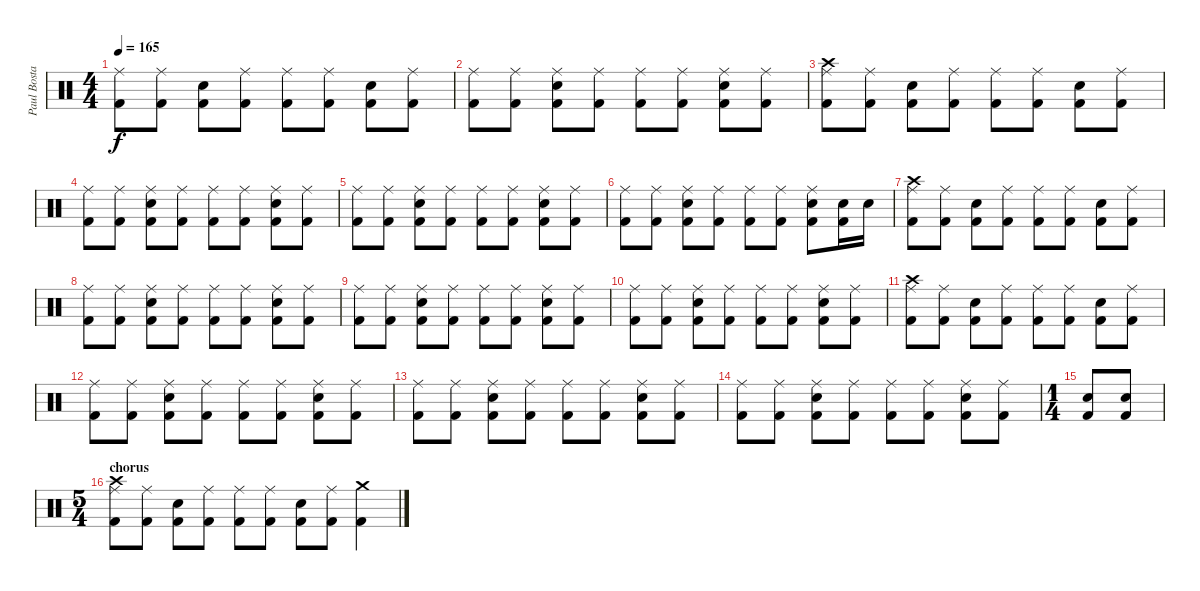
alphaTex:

\track ("Paul Bostaph" "Paul Bosta") {instrument percussion}
\staff {score}
\articulation defaults
\ts (4 4)
\tempo 165
\clef neutral
\ks c
("Ride (middle)" "Kick (hit) 2").8{dy f} ("Ride (middle)" "Kick (hit) 2").8 ("Snare (hit) 2" "Kick (hit) 2").8 ("Ride (middle)" "Kick (hit) 2").8 ("Ride (middle)" "Kick (hit) 2").8 ("Ride (middle)" "Kick (hit) 2").8 ("Snare (hit) 2" "Kick (hit) 2").8 ("Ride (middle)" "Kick (hit) 2").8 |
("Ride (middle)" "Kick (hit) 2").8 ("Ride (middle)" "Kick (hit) 2").8 ("Ride (middle)" "Snare (hit) 2" "Kick (hit) 2").8 ("Ride (middle)" "Kick (hit) 2").8 ("Ride (middle)" "Kick (hit) 2").8 ("Ride (middle)" "Kick (hit) 2").8 ("Ride (middle)" "Snare (hit) 2" "Kick (hit) 2").8 ("Ride (middle)" "Kick (hit) 2").8 |
("Crash high (hit)" "Ride (middle)" "Kick (hit) 2").8 ("Ride (middle)" "Kick (hit) 2").8 ("Snare (hit) 2" "Kick (hit) 2").8 ("Ride (middle)" "Kick (hit) 2").8 ("Ride (middle)" "Kick (hit) 2").8 ("Ride (middle)" "Kick (hit) 2").8 ("Snare (hit) 2" "Kick (hit) 2").8 ("Ride (middle)" "Kick (hit) 2").8 |
("Ride (middle)" "Kick (hit) 2").8 ("Ride (middle)" "Kick (hit) 2").8 ("Ride (middle)" "Snare (hit) 2" "Kick (hit) 2").8 ("Ride (middle)" "Kick (hit) 2").8 ("Ride (middle)" "Kick (hit) 2").8 ("Ride (middle)" "Kick (hit) 2").8 ("Ride (middle)" "Snare (hit) 2" "Kick (hit) 2").8 ("Ride (middle)" "Kick (hit) 2").8 |
("Ride (middle)" "Kick (hit) 2").8 ("Ride (middle)" "Kick (hit) 2").8 ("Ride (middle)" "Snare (hit) 2" "Kick (hit) 2").8 ("Ride (middle)" "Kick (hit) 2").8 ("Ride (middle)" "Kick (hit) 2").8 ("Ride (middle)" "Kick (hit) 2").8 ("Ride (middle)" "Snare (hit) 2" "Kick (hit) 2").8 ("Ride (middle)" "Kick (hit) 2").8 |
("Ride (middle)" "Kick (hit) 2").8 ("Ride (middle)" "Kick (hit) 2").8 ("Ride (middle)" "Snare (hit) 2" "Kick (hit) 2").8 ("Ride (middle)" "Kick (hit) 2").8 ("Ride (middle)" "Kick (hit) 2").8 ("Ride (middle)" "Kick (hit) 2").8 ("Ride (middle)" "Snare (hit) 2" "Kick (hit) 2").8 ("Snare (hit) 2" "Kick (hit) 2").16 "Snare (hit) 2".16 |
("Crash high (hit)" "Ride (middle)" "Kick (hit) 2").8 ("Ride (middle)" "Kick (hit) 2").8 ("Snare (hit) 2" "Kick (hit) 2").8 ("Ride (middle)" "Kick (hit) 2").8 ("Ride (middle)" "Kick (hit) 2").8 ("Ride (middle)" "Kick (hit) 2").8 ("Snare (hit) 2" "Kick (hit) 2").8 ("Ride (middle)" "Kick (hit) 2").8 |
("Ride (middle)" "Kick (hit) 2").8 ("Ride (middle)" "Kick (hit) 2").8 ("Ride (middle)" "Snare (hit) 2" "Kick (hit) 2").8 ("Ride (middle)" "Kick (hit) 2").8 ("Ride (middle)" "Kick (hit) 2").8 ("Ride (middle)" "Kick (hit) 2").8 ("Ride (middle)" "Snare (hit) 2" "Kick (hit) 2").8 ("Ride (middle)" "Kick (hit) 2").8 |
("Ride (middle)" "Kick (hit) 2").8 ("Ride (middle)" "Kick (hit) 2").8 ("Ride (middle)" "Snare (hit) 2" "Kick (hit) 2").8 ("Ride (middle)" "Kick (hit) 2").8 ("Ride (middle)" "Kick (hit) 2").8 ("Ride (middle)" "Kick (hit) 2").8 ("Ride (middle)" "Snare (hit) 2" "Kick (hit) 2").8 ("Ride (middle)" "Kick (hit) 2").8 |
("Ride (middle)" "Kick (hit) 2").8 ("Ride (middle)" "Kick (hit) 2").8 ("Ride (middle)" "Snare (hit) 2" "Kick (hit) 2").8 ("Ride (middle)" "Kick (hit) 2").8 ("Ride (middle)" "Kick (hit) 2").8 ("Ride (middle)" "Kick (hit) 2").8 ("Ride (middle)" "Snare (hit) 2" "Kick (hit) 2").8 ("Ride (middle)" "Kick (hit) 2").8 |
("Crash high (hit)" "Ride (middle)" "Kick (hit) 2").8 ("Ride (middle)" "Kick (hit) 2").8 ("Snare (hit) 2" "Kick (hit) 2").8 ("Ride (middle)" "Kick (hit) 2").8 ("Ride (middle)" "Kick (hit) 2").8 ("Ride (middle)" "Kick (hit) 2").8 ("Snare (hit) 2" "Kick (hit) 2").8 ("Ride (middle)" "Kick (hit) 2").8 |
("Ride (middle)" "Kick (hit) 2").8 ("Ride (middle)" "Kick (hit) 2").8 ("Ride (middle)" "Snare (hit) 2" "Kick (hit) 2").8 ("Ride (middle)" "Kick (hit) 2").8 ("Ride (middle)" "Kick (hit) 2").8 ("Ride (middle)" "Kick (hit) 2").8 ("Ride (middle)" "Snare (hit) 2" "Kick (hit) 2").8 ("Ride (middle)" "Kick (hit) 2").8 |
("Ride (middle)" "Kick (hit) 2").8 ("Ride (middle)" "Kick (hit) 2").8 ("Ride (middle)" "Snare (hit) 2" "Kick (hit) 2").8 ("Ride (middle)" "Kick (hit) 2").8 ("Ride (middle)" "Kick (hit) 2").8 ("Ride (middle)" "Kick (hit) 2").8 ("Ride (middle)" "Snare (hit) 2" "Kick (hit) 2").8 ("Ride (middle)" "Kick (hit) 2").8 |
("Ride (middle)" "Kick (hit) 2").8 ("Ride (middle)" "Kick (hit) 2").8 ("Ride (middle)" "Snare (hit) 2" "Kick (hit) 2").8 ("Ride (middle)" "Kick (hit) 2").8 ("Ride (middle)" "Kick (hit) 2").8 ("Ride (middle)" "Kick (hit) 2").8 ("Ride (middle)" "Snare (hit) 2" "Kick (hit) 2").8 ("Ride (middle)" "Kick (hit) 2").8 |
\ts (1 4)
("Snare (hit) 2" "Kick (hit) 2").8 ("Snare (hit) 2" "Kick (hit) 2").8 |
\ts (5 4)
\section ("" "chorus")
("Crash high (hit)" "Ride (middle)" "Kick (hit) 2").8 ("Ride (middle)" "Kick (hit) 2").8 ("Snare (hit) 2" "Kick (hit) 2").8 ("Ride (middle)" "Kick (hit) 2").8 ("Ride (middle)" "Kick (hit) 2").8 ("Ride (middle)" "Kick (hit) 2").8 ("Snare (hit) 2" "Kick (hit) 2").8 ("Ride (middle)" "Kick (hit) 2").8 ("Crash medium (hit)" "Kick (hit) 2").4
